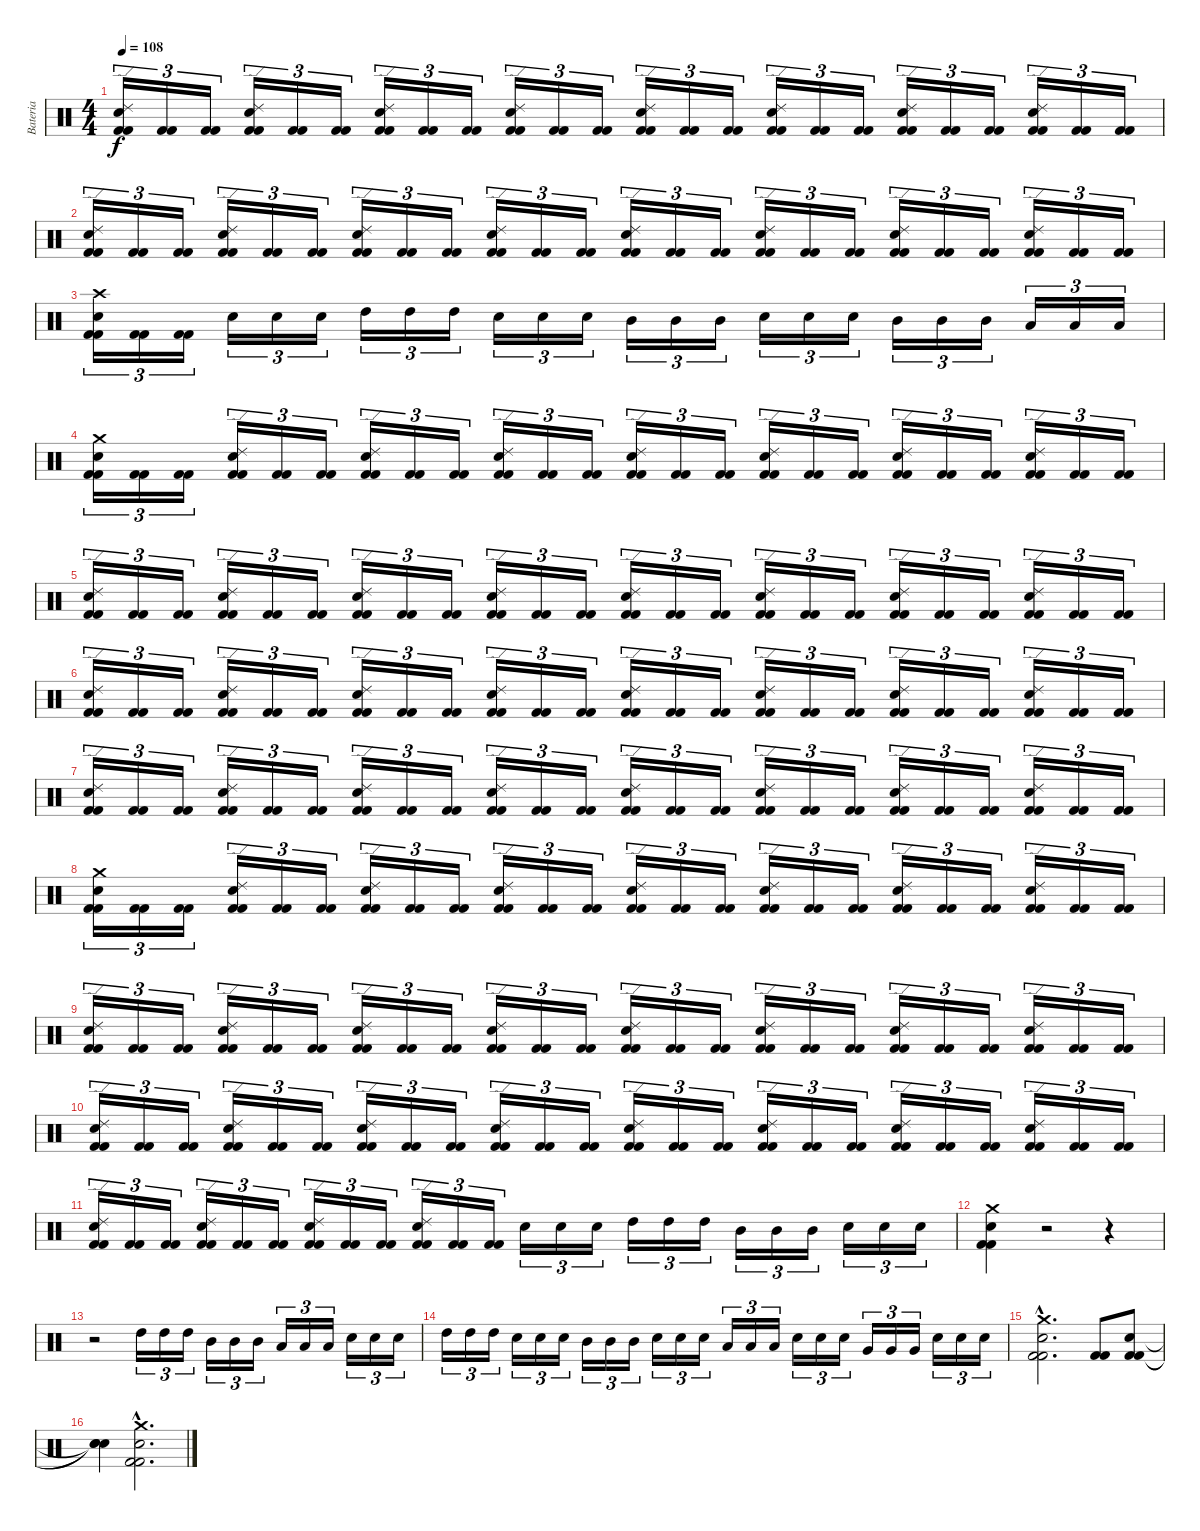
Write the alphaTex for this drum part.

\track ("Bateria" "Bateria") {instrument percussion}
\staff {score}
\articulation defaults
\ts (4 4)
\tempo 108
\clef neutral
\ks c
("Kick (hit) 2" "Kick (hit) 2" "Snare (hit) 2" "Ride (edge) 2").16{tu (3 2) dy f} ("Kick (hit) 2" "Kick (hit) 2").16{tu (3 2)} ("Kick (hit) 2" "Kick (hit) 2").16{tu (3 2)} ("Kick (hit) 2" "Kick (hit) 2" "Snare (hit) 2" "Ride (edge) 2").16{tu (3 2)} ("Kick (hit) 2" "Kick (hit) 2").16{tu (3 2)} ("Kick (hit) 2" "Kick (hit) 2").16{tu (3 2)} ("Kick (hit) 2" "Kick (hit) 2" "Snare (hit) 2" "Ride (edge) 2").16{tu (3 2)} ("Kick (hit) 2" "Kick (hit) 2").16{tu (3 2)} ("Kick (hit) 2" "Kick (hit) 2").16{tu (3 2)} ("Kick (hit) 2" "Kick (hit) 2" "Snare (hit) 2" "Ride (edge) 2").16{tu (3 2)} ("Kick (hit) 2" "Kick (hit) 2").16{tu (3 2)} ("Kick (hit) 2" "Kick (hit) 2").16{tu (3 2)} ("Kick (hit) 2" "Kick (hit) 2" "Snare (hit) 2" "Ride (edge) 2").16{tu (3 2)} ("Kick (hit) 2" "Kick (hit) 2").16{tu (3 2)} ("Kick (hit) 2" "Kick (hit) 2").16{tu (3 2)} ("Kick (hit) 2" "Kick (hit) 2" "Snare (hit) 2" "Ride (edge) 2").16{tu (3 2)} ("Kick (hit) 2" "Kick (hit) 2").16{tu (3 2)} ("Kick (hit) 2" "Kick (hit) 2").16{tu (3 2)} ("Kick (hit) 2" "Kick (hit) 2" "Snare (hit) 2" "Ride (edge) 2").16{tu (3 2)} ("Kick (hit) 2" "Kick (hit) 2").16{tu (3 2)} ("Kick (hit) 2" "Kick (hit) 2").16{tu (3 2)} ("Kick (hit) 2" "Kick (hit) 2" "Snare (hit) 2" "Ride (edge) 2").16{tu (3 2)} ("Kick (hit) 2" "Kick (hit) 2").16{tu (3 2)} ("Kick (hit) 2" "Kick (hit) 2").16{tu (3 2)} |
("Kick (hit) 2" "Kick (hit) 2" "Snare (hit) 2" "Ride (edge) 2").16{tu (3 2)} ("Kick (hit) 2" "Kick (hit) 2").16{tu (3 2)} ("Kick (hit) 2" "Kick (hit) 2").16{tu (3 2)} ("Kick (hit) 2" "Kick (hit) 2" "Snare (hit) 2" "Ride (edge) 2").16{tu (3 2)} ("Kick (hit) 2" "Kick (hit) 2").16{tu (3 2)} ("Kick (hit) 2" "Kick (hit) 2").16{tu (3 2)} ("Kick (hit) 2" "Kick (hit) 2" "Snare (hit) 2" "Ride (edge) 2").16{tu (3 2)} ("Kick (hit) 2" "Kick (hit) 2").16{tu (3 2)} ("Kick (hit) 2" "Kick (hit) 2").16{tu (3 2)} ("Kick (hit) 2" "Kick (hit) 2" "Snare (hit) 2" "Ride (edge) 2").16{tu (3 2)} ("Kick (hit) 2" "Kick (hit) 2").16{tu (3 2)} ("Kick (hit) 2" "Kick (hit) 2").16{tu (3 2)} ("Kick (hit) 2" "Kick (hit) 2" "Snare (hit) 2" "Ride (edge) 2").16{tu (3 2)} ("Kick (hit) 2" "Kick (hit) 2").16{tu (3 2)} ("Kick (hit) 2" "Kick (hit) 2").16{tu (3 2)} ("Kick (hit) 2" "Kick (hit) 2" "Snare (hit) 2" "Ride (edge) 2").16{tu (3 2)} ("Kick (hit) 2" "Kick (hit) 2").16{tu (3 2)} ("Kick (hit) 2" "Kick (hit) 2").16{tu (3 2)} ("Kick (hit) 2" "Kick (hit) 2" "Snare (hit) 2" "Ride (edge) 2").16{tu (3 2)} ("Kick (hit) 2" "Kick (hit) 2").16{tu (3 2)} ("Kick (hit) 2" "Kick (hit) 2").16{tu (3 2)} ("Kick (hit) 2" "Kick (hit) 2" "Snare (hit) 2" "Ride (edge) 2").16{tu (3 2)} ("Kick (hit) 2" "Kick (hit) 2").16{tu (3 2)} ("Kick (hit) 2" "Kick (hit) 2").16{tu (3 2)} |
("Kick (hit) 2" "Kick (hit) 2" "Snare (hit) 2" "Crash high (hit)").16{tu (3 2)} ("Kick (hit) 2" "Kick (hit) 2").16{tu (3 2)} ("Kick (hit) 2" "Kick (hit) 2").16{tu (3 2)} "Snare (hit) 2".16{tu (3 2)} "Snare (hit) 2".16{tu (3 2)} "Snare (hit) 2".16{tu (3 2)} "High Tom (hit)".16{tu (3 2)} "High Tom (hit)".16{tu (3 2)} "High Tom (hit)".16{tu (3 2)} "Snare (hit) 2".16{tu (3 2)} "Snare (hit) 2".16{tu (3 2)} "Snare (hit) 2".16{tu (3 2)} "Mid Tom (hit)".16{tu (3 2)} "Mid Tom (hit)".16{tu (3 2)} "Mid Tom (hit)".16{tu (3 2)} "Snare (hit) 2".16{tu (3 2)} "Snare (hit) 2".16{tu (3 2)} "Snare (hit) 2".16{tu (3 2)} "Mid Tom (hit)".16{tu (3 2)} "Mid Tom (hit)".16{tu (3 2)} "Mid Tom (hit)".16{tu (3 2)} "Low Tom (hit)".16{tu (3 2)} "Low Tom (hit)".16{tu (3 2)} "Low Tom (hit)".16{tu (3 2)} |
("Kick (hit) 2" "Kick (hit) 2" "Snare (hit) 2" "Crash medium (hit)").16{tu (3 2)} ("Kick (hit) 2" "Kick (hit) 2").16{tu (3 2)} ("Kick (hit) 2" "Kick (hit) 2").16{tu (3 2)} ("Kick (hit) 2" "Kick (hit) 2" "Snare (hit) 2" "Ride (edge) 2").16{tu (3 2)} ("Kick (hit) 2" "Kick (hit) 2").16{tu (3 2)} ("Kick (hit) 2" "Kick (hit) 2").16{tu (3 2)} ("Kick (hit) 2" "Kick (hit) 2" "Snare (hit) 2" "Ride (edge) 2").16{tu (3 2)} ("Kick (hit) 2" "Kick (hit) 2").16{tu (3 2)} ("Kick (hit) 2" "Kick (hit) 2").16{tu (3 2)} ("Kick (hit) 2" "Kick (hit) 2" "Snare (hit) 2" "Ride (edge) 2").16{tu (3 2)} ("Kick (hit) 2" "Kick (hit) 2").16{tu (3 2)} ("Kick (hit) 2" "Kick (hit) 2").16{tu (3 2)} ("Kick (hit) 2" "Kick (hit) 2" "Snare (hit) 2" "Ride (edge) 2").16{tu (3 2)} ("Kick (hit) 2" "Kick (hit) 2").16{tu (3 2)} ("Kick (hit) 2" "Kick (hit) 2").16{tu (3 2)} ("Kick (hit) 2" "Kick (hit) 2" "Snare (hit) 2" "Ride (edge) 2").16{tu (3 2)} ("Kick (hit) 2" "Kick (hit) 2").16{tu (3 2)} ("Kick (hit) 2" "Kick (hit) 2").16{tu (3 2)} ("Kick (hit) 2" "Kick (hit) 2" "Snare (hit) 2" "Ride (edge) 2").16{tu (3 2)} ("Kick (hit) 2" "Kick (hit) 2").16{tu (3 2)} ("Kick (hit) 2" "Kick (hit) 2").16{tu (3 2)} ("Kick (hit) 2" "Kick (hit) 2" "Snare (hit) 2" "Ride (edge) 2").16{tu (3 2)} ("Kick (hit) 2" "Kick (hit) 2").16{tu (3 2)} ("Kick (hit) 2" "Kick (hit) 2").16{tu (3 2)} |
("Kick (hit) 2" "Kick (hit) 2" "Snare (hit) 2" "Ride (edge) 2").16{tu (3 2)} ("Kick (hit) 2" "Kick (hit) 2").16{tu (3 2)} ("Kick (hit) 2" "Kick (hit) 2").16{tu (3 2)} ("Kick (hit) 2" "Kick (hit) 2" "Snare (hit) 2" "Ride (edge) 2").16{tu (3 2)} ("Kick (hit) 2" "Kick (hit) 2").16{tu (3 2)} ("Kick (hit) 2" "Kick (hit) 2").16{tu (3 2)} ("Kick (hit) 2" "Kick (hit) 2" "Snare (hit) 2" "Ride (edge) 2").16{tu (3 2)} ("Kick (hit) 2" "Kick (hit) 2").16{tu (3 2)} ("Kick (hit) 2" "Kick (hit) 2").16{tu (3 2)} ("Kick (hit) 2" "Kick (hit) 2" "Snare (hit) 2" "Ride (edge) 2").16{tu (3 2)} ("Kick (hit) 2" "Kick (hit) 2").16{tu (3 2)} ("Kick (hit) 2" "Kick (hit) 2").16{tu (3 2)} ("Kick (hit) 2" "Kick (hit) 2" "Snare (hit) 2" "Ride (edge) 2").16{tu (3 2)} ("Kick (hit) 2" "Kick (hit) 2").16{tu (3 2)} ("Kick (hit) 2" "Kick (hit) 2").16{tu (3 2)} ("Kick (hit) 2" "Kick (hit) 2" "Snare (hit) 2" "Ride (edge) 2").16{tu (3 2)} ("Kick (hit) 2" "Kick (hit) 2").16{tu (3 2)} ("Kick (hit) 2" "Kick (hit) 2").16{tu (3 2)} ("Kick (hit) 2" "Kick (hit) 2" "Snare (hit) 2" "Ride (edge) 2").16{tu (3 2)} ("Kick (hit) 2" "Kick (hit) 2").16{tu (3 2)} ("Kick (hit) 2" "Kick (hit) 2").16{tu (3 2)} ("Kick (hit) 2" "Kick (hit) 2" "Snare (hit) 2" "Ride (edge) 2").16{tu (3 2)} ("Kick (hit) 2" "Kick (hit) 2").16{tu (3 2)} ("Kick (hit) 2" "Kick (hit) 2").16{tu (3 2)} |
("Kick (hit) 2" "Kick (hit) 2" "Snare (hit) 2" "Ride (edge) 2").16{tu (3 2)} ("Kick (hit) 2" "Kick (hit) 2").16{tu (3 2)} ("Kick (hit) 2" "Kick (hit) 2").16{tu (3 2)} ("Kick (hit) 2" "Kick (hit) 2" "Snare (hit) 2" "Ride (edge) 2").16{tu (3 2)} ("Kick (hit) 2" "Kick (hit) 2").16{tu (3 2)} ("Kick (hit) 2" "Kick (hit) 2").16{tu (3 2)} ("Kick (hit) 2" "Kick (hit) 2" "Snare (hit) 2" "Ride (edge) 2").16{tu (3 2)} ("Kick (hit) 2" "Kick (hit) 2").16{tu (3 2)} ("Kick (hit) 2" "Kick (hit) 2").16{tu (3 2)} ("Kick (hit) 2" "Kick (hit) 2" "Snare (hit) 2" "Ride (edge) 2").16{tu (3 2)} ("Kick (hit) 2" "Kick (hit) 2").16{tu (3 2)} ("Kick (hit) 2" "Kick (hit) 2").16{tu (3 2)} ("Kick (hit) 2" "Kick (hit) 2" "Snare (hit) 2" "Ride (edge) 2").16{tu (3 2)} ("Kick (hit) 2" "Kick (hit) 2").16{tu (3 2)} ("Kick (hit) 2" "Kick (hit) 2").16{tu (3 2)} ("Kick (hit) 2" "Kick (hit) 2" "Snare (hit) 2" "Ride (edge) 2").16{tu (3 2)} ("Kick (hit) 2" "Kick (hit) 2").16{tu (3 2)} ("Kick (hit) 2" "Kick (hit) 2").16{tu (3 2)} ("Kick (hit) 2" "Kick (hit) 2" "Snare (hit) 2" "Ride (edge) 2").16{tu (3 2)} ("Kick (hit) 2" "Kick (hit) 2").16{tu (3 2)} ("Kick (hit) 2" "Kick (hit) 2").16{tu (3 2)} ("Kick (hit) 2" "Kick (hit) 2" "Snare (hit) 2" "Ride (edge) 2").16{tu (3 2)} ("Kick (hit) 2" "Kick (hit) 2").16{tu (3 2)} ("Kick (hit) 2" "Kick (hit) 2").16{tu (3 2)} |
("Kick (hit) 2" "Kick (hit) 2" "Snare (hit) 2" "Ride (edge) 2").16{tu (3 2)} ("Kick (hit) 2" "Kick (hit) 2").16{tu (3 2)} ("Kick (hit) 2" "Kick (hit) 2").16{tu (3 2)} ("Kick (hit) 2" "Kick (hit) 2" "Snare (hit) 2" "Ride (edge) 2").16{tu (3 2)} ("Kick (hit) 2" "Kick (hit) 2").16{tu (3 2)} ("Kick (hit) 2" "Kick (hit) 2").16{tu (3 2)} ("Kick (hit) 2" "Kick (hit) 2" "Snare (hit) 2" "Ride (edge) 2").16{tu (3 2)} ("Kick (hit) 2" "Kick (hit) 2").16{tu (3 2)} ("Kick (hit) 2" "Kick (hit) 2").16{tu (3 2)} ("Kick (hit) 2" "Kick (hit) 2" "Snare (hit) 2" "Ride (edge) 2").16{tu (3 2)} ("Kick (hit) 2" "Kick (hit) 2").16{tu (3 2)} ("Kick (hit) 2" "Kick (hit) 2").16{tu (3 2)} ("Kick (hit) 2" "Kick (hit) 2" "Snare (hit) 2" "Ride (edge) 2").16{tu (3 2)} ("Kick (hit) 2" "Kick (hit) 2").16{tu (3 2)} ("Kick (hit) 2" "Kick (hit) 2").16{tu (3 2)} ("Kick (hit) 2" "Kick (hit) 2" "Snare (hit) 2" "Ride (edge) 2").16{tu (3 2)} ("Kick (hit) 2" "Kick (hit) 2").16{tu (3 2)} ("Kick (hit) 2" "Kick (hit) 2").16{tu (3 2)} ("Kick (hit) 2" "Kick (hit) 2" "Snare (hit) 2" "Ride (edge) 2").16{tu (3 2)} ("Kick (hit) 2" "Kick (hit) 2").16{tu (3 2)} ("Kick (hit) 2" "Kick (hit) 2").16{tu (3 2)} ("Kick (hit) 2" "Kick (hit) 2" "Snare (hit) 2" "Ride (edge) 2").16{tu (3 2)} ("Kick (hit) 2" "Kick (hit) 2").16{tu (3 2)} ("Kick (hit) 2" "Kick (hit) 2").16{tu (3 2)} |
("Kick (hit) 2" "Kick (hit) 2" "Snare (hit) 2" "Crash medium (hit)").16{tu (3 2)} ("Kick (hit) 2" "Kick (hit) 2").16{tu (3 2)} ("Kick (hit) 2" "Kick (hit) 2").16{tu (3 2)} ("Kick (hit) 2" "Kick (hit) 2" "Snare (hit) 2" "Ride (edge) 2").16{tu (3 2)} ("Kick (hit) 2" "Kick (hit) 2").16{tu (3 2)} ("Kick (hit) 2" "Kick (hit) 2").16{tu (3 2)} ("Kick (hit) 2" "Kick (hit) 2" "Snare (hit) 2" "Ride (edge) 2").16{tu (3 2)} ("Kick (hit) 2" "Kick (hit) 2").16{tu (3 2)} ("Kick (hit) 2" "Kick (hit) 2").16{tu (3 2)} ("Kick (hit) 2" "Kick (hit) 2" "Snare (hit) 2" "Ride (edge) 2").16{tu (3 2)} ("Kick (hit) 2" "Kick (hit) 2").16{tu (3 2)} ("Kick (hit) 2" "Kick (hit) 2").16{tu (3 2)} ("Kick (hit) 2" "Kick (hit) 2" "Snare (hit) 2" "Ride (edge) 2").16{tu (3 2)} ("Kick (hit) 2" "Kick (hit) 2").16{tu (3 2)} ("Kick (hit) 2" "Kick (hit) 2").16{tu (3 2)} ("Kick (hit) 2" "Kick (hit) 2" "Snare (hit) 2" "Ride (edge) 2").16{tu (3 2)} ("Kick (hit) 2" "Kick (hit) 2").16{tu (3 2)} ("Kick (hit) 2" "Kick (hit) 2").16{tu (3 2)} ("Kick (hit) 2" "Kick (hit) 2" "Snare (hit) 2" "Ride (edge) 2").16{tu (3 2)} ("Kick (hit) 2" "Kick (hit) 2").16{tu (3 2)} ("Kick (hit) 2" "Kick (hit) 2").16{tu (3 2)} ("Kick (hit) 2" "Kick (hit) 2" "Snare (hit) 2" "Ride (edge) 2").16{tu (3 2)} ("Kick (hit) 2" "Kick (hit) 2").16{tu (3 2)} ("Kick (hit) 2" "Kick (hit) 2").16{tu (3 2)} |
("Kick (hit) 2" "Kick (hit) 2" "Snare (hit) 2" "Ride (edge) 2").16{tu (3 2)} ("Kick (hit) 2" "Kick (hit) 2").16{tu (3 2)} ("Kick (hit) 2" "Kick (hit) 2").16{tu (3 2)} ("Kick (hit) 2" "Kick (hit) 2" "Snare (hit) 2" "Ride (edge) 2").16{tu (3 2)} ("Kick (hit) 2" "Kick (hit) 2").16{tu (3 2)} ("Kick (hit) 2" "Kick (hit) 2").16{tu (3 2)} ("Kick (hit) 2" "Kick (hit) 2" "Snare (hit) 2" "Ride (edge) 2").16{tu (3 2)} ("Kick (hit) 2" "Kick (hit) 2").16{tu (3 2)} ("Kick (hit) 2" "Kick (hit) 2").16{tu (3 2)} ("Kick (hit) 2" "Kick (hit) 2" "Snare (hit) 2" "Ride (edge) 2").16{tu (3 2)} ("Kick (hit) 2" "Kick (hit) 2").16{tu (3 2)} ("Kick (hit) 2" "Kick (hit) 2").16{tu (3 2)} ("Kick (hit) 2" "Kick (hit) 2" "Snare (hit) 2" "Ride (edge) 2").16{tu (3 2)} ("Kick (hit) 2" "Kick (hit) 2").16{tu (3 2)} ("Kick (hit) 2" "Kick (hit) 2").16{tu (3 2)} ("Kick (hit) 2" "Kick (hit) 2" "Snare (hit) 2" "Ride (edge) 2").16{tu (3 2)} ("Kick (hit) 2" "Kick (hit) 2").16{tu (3 2)} ("Kick (hit) 2" "Kick (hit) 2").16{tu (3 2)} ("Kick (hit) 2" "Kick (hit) 2" "Snare (hit) 2" "Ride (edge) 2").16{tu (3 2)} ("Kick (hit) 2" "Kick (hit) 2").16{tu (3 2)} ("Kick (hit) 2" "Kick (hit) 2").16{tu (3 2)} ("Kick (hit) 2" "Kick (hit) 2" "Snare (hit) 2" "Ride (edge) 2").16{tu (3 2)} ("Kick (hit) 2" "Kick (hit) 2").16{tu (3 2)} ("Kick (hit) 2" "Kick (hit) 2").16{tu (3 2)} |
("Kick (hit) 2" "Kick (hit) 2" "Snare (hit) 2" "Ride (edge) 2").16{tu (3 2)} ("Kick (hit) 2" "Kick (hit) 2").16{tu (3 2)} ("Kick (hit) 2" "Kick (hit) 2").16{tu (3 2)} ("Kick (hit) 2" "Kick (hit) 2" "Snare (hit) 2" "Ride (edge) 2").16{tu (3 2)} ("Kick (hit) 2" "Kick (hit) 2").16{tu (3 2)} ("Kick (hit) 2" "Kick (hit) 2").16{tu (3 2)} ("Kick (hit) 2" "Kick (hit) 2" "Snare (hit) 2" "Ride (edge) 2").16{tu (3 2)} ("Kick (hit) 2" "Kick (hit) 2").16{tu (3 2)} ("Kick (hit) 2" "Kick (hit) 2").16{tu (3 2)} ("Kick (hit) 2" "Kick (hit) 2" "Snare (hit) 2" "Ride (edge) 2").16{tu (3 2)} ("Kick (hit) 2" "Kick (hit) 2").16{tu (3 2)} ("Kick (hit) 2" "Kick (hit) 2").16{tu (3 2)} ("Kick (hit) 2" "Kick (hit) 2" "Snare (hit) 2" "Ride (edge) 2").16{tu (3 2)} ("Kick (hit) 2" "Kick (hit) 2").16{tu (3 2)} ("Kick (hit) 2" "Kick (hit) 2").16{tu (3 2)} ("Kick (hit) 2" "Kick (hit) 2" "Snare (hit) 2" "Ride (edge) 2").16{tu (3 2)} ("Kick (hit) 2" "Kick (hit) 2").16{tu (3 2)} ("Kick (hit) 2" "Kick (hit) 2").16{tu (3 2)} ("Kick (hit) 2" "Kick (hit) 2" "Snare (hit) 2" "Ride (edge) 2").16{tu (3 2)} ("Kick (hit) 2" "Kick (hit) 2").16{tu (3 2)} ("Kick (hit) 2" "Kick (hit) 2").16{tu (3 2)} ("Kick (hit) 2" "Kick (hit) 2" "Snare (hit) 2" "Ride (edge) 2").16{tu (3 2)} ("Kick (hit) 2" "Kick (hit) 2").16{tu (3 2)} ("Kick (hit) 2" "Kick (hit) 2").16{tu (3 2)} |
("Kick (hit) 2" "Kick (hit) 2" "Snare (hit) 2" "Ride (edge) 2").16{tu (3 2)} ("Kick (hit) 2" "Kick (hit) 2").16{tu (3 2)} ("Kick (hit) 2" "Kick (hit) 2").16{tu (3 2)} ("Kick (hit) 2" "Kick (hit) 2" "Snare (hit) 2" "Ride (edge) 2").16{tu (3 2)} ("Kick (hit) 2" "Kick (hit) 2").16{tu (3 2)} ("Kick (hit) 2" "Kick (hit) 2").16{tu (3 2)} ("Kick (hit) 2" "Kick (hit) 2" "Snare (hit) 2" "Ride (edge) 2").16{tu (3 2)} ("Kick (hit) 2" "Kick (hit) 2").16{tu (3 2)} ("Kick (hit) 2" "Kick (hit) 2").16{tu (3 2)} ("Kick (hit) 2" "Kick (hit) 2" "Snare (hit) 2" "Ride (edge) 2").16{tu (3 2)} ("Kick (hit) 2" "Kick (hit) 2").16{tu (3 2)} ("Kick (hit) 2" "Kick (hit) 2").16{tu (3 2)} "Snare (hit) 2".16{tu (3 2)} "Snare (hit) 2".16{tu (3 2)} "Snare (hit) 2".16{tu (3 2)} "High Tom (hit)".16{tu (3 2)} "High Tom (hit)".16{tu (3 2)} "High Tom (hit)".16{tu (3 2)} "Mid Tom (hit)".16{tu (3 2)} "Mid Tom (hit)".16{tu (3 2)} "Mid Tom (hit)".16{tu (3 2)} "Snare (hit) 2".16{tu (3 2)} "Snare (hit) 2".16{tu (3 2)} "Snare (hit) 2".16{tu (3 2)} |
("Kick (hit) 2" "Kick (hit) 2" "Snare (hit) 2" "Crash medium (hit)").4 r.2 r.4 |
r.2 "High Tom (hit)".16{tu (3 2)} "High Tom (hit)".16{tu (3 2)} "High Tom (hit)".16{tu (3 2)} "Mid Tom (hit)".16{tu (3 2)} "Mid Tom (hit)".16{tu (3 2)} "Mid Tom (hit)".16{tu (3 2)} "Low Tom (hit)".16{tu (3 2)} "Low Tom (hit)".16{tu (3 2)} "Low Tom (hit)".16{tu (3 2)} "Snare (hit) 2".16{tu (3 2)} "Snare (hit) 2".16{tu (3 2)} "Snare (hit) 2".16{tu (3 2)} |
"High Tom (hit)".16{tu (3 2)} "High Tom (hit)".16{tu (3 2)} "High Tom (hit)".16{tu (3 2)} "Snare (hit) 2".16{tu (3 2)} "Snare (hit) 2".16{tu (3 2)} "Snare (hit) 2".16{tu (3 2)} "Mid Tom (hit)".16{tu (3 2)} "Mid Tom (hit)".16{tu (3 2)} "Mid Tom (hit)".16{tu (3 2)} "Snare (hit) 2".16{tu (3 2)} "Snare (hit) 2".16{tu (3 2)} "Snare (hit) 2".16{tu (3 2)} "Low Tom (hit)".16{tu (3 2)} "Low Tom (hit)".16{tu (3 2)} "Low Tom (hit)".16{tu (3 2)} "Snare (hit) 2".16{tu (3 2)} "Snare (hit) 2".16{tu (3 2)} "Snare (hit) 2".16{tu (3 2)} "Very Low Tom (hit)".16{tu (3 2)} "Very Low Tom (hit)".16{tu (3 2)} "Very Low Tom (hit)".16{tu (3 2)} "Snare (hit) 2".16{tu (3 2)} "Snare (hit) 2".16{tu (3 2)} "Snare (hit) 2".16{tu (3 2)} |
("Kick (hit) 2"{hac} "Kick (hit) 2"{hac} "Snare (hit) 2"{hac} "Crash medium (hit)"{hac}).2{d} ("Kick (hit) 2" "Kick (hit) 2").8 ("Kick (hit) 2" "Kick (hit) 2" "Snare (hit) 2").8 |
("Snare (hit)"{t} "Snare (hit)"{t} "Snare (hit)"{t}).4 ("Kick (hit) 2"{hac} "Kick (hit) 2"{hac} "Snare (hit) 2"{hac} "Crash medium (hit)"{hac}).2{d}
